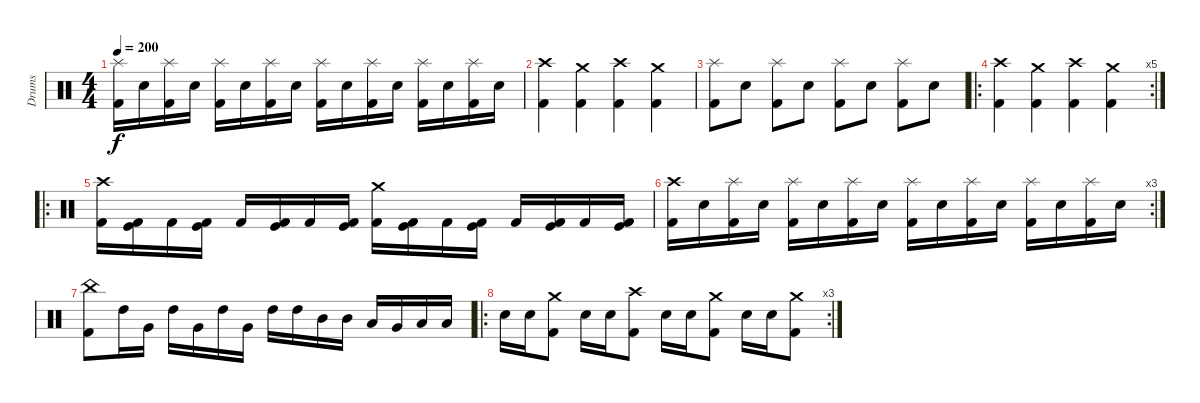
\track ("Drums" "Drums") {instrument percussion}
\staff {score}
\articulation defaults
\ts (4 4)
\tempo 200
\clef neutral
\ks c
("Splash (hit)" "Kick (hit) 2").16{dy f} "Electric Snare (hit)".16 ("Splash (hit)" "Kick (hit) 2").16 "Electric Snare (hit)".16 ("Splash (hit)" "Kick (hit) 2").16 "Electric Snare (hit)".16 ("Splash (hit)" "Kick (hit) 2").16 "Electric Snare (hit)".16 ("Splash (hit)" "Kick (hit) 2").16 "Electric Snare (hit)".16 ("Splash (hit)" "Kick (hit) 2").16 "Electric Snare (hit)".16 ("Splash (hit)" "Kick (hit) 2").16 "Electric Snare (hit)".16 ("Splash (hit)" "Kick (hit) 2").16 "Electric Snare (hit)".16 |
("Crash high (hit)" "Kick (hit) 2").4 ("Crash medium (hit)" "Kick (hit) 2").4 ("Crash high (hit)" "Kick (hit) 2").4 ("Crash medium (hit)" "Kick (hit) 2").4 |
("Splash (hit)" "Kick (hit) 2").8 "Electric Snare (hit)".8 ("Splash (hit)" "Kick (hit) 2").8 "Electric Snare (hit)".8 ("Splash (hit)" "Kick (hit) 2").8 "Electric Snare (hit)".8 ("Splash (hit)" "Kick (hit) 2").8 "Electric Snare (hit)".8 |
\ro
\rc 5
("Crash high (hit)" "Kick (hit) 2").4 ("Crash medium (hit)" "Kick (hit) 2").4 ("Crash high (hit)" "Kick (hit) 2").4 ("Crash medium (hit)" "Kick (hit) 2").4 |
\ro
("Crash high (hit)" "Kick (hit) 2").16 ("Kick (hit)" "Kick (hit) 2").16 "Kick (hit) 2".16 ("Kick (hit)" "Kick (hit) 2").16 "Kick (hit) 2".16 ("Kick (hit)" "Kick (hit) 2").16 "Kick (hit) 2".16 ("Kick (hit)" "Kick (hit) 2").16 ("Crash medium (hit)" "Kick (hit) 2").16 ("Kick (hit)" "Kick (hit) 2").16 "Kick (hit) 2".16 ("Kick (hit)" "Kick (hit) 2").16 "Kick (hit) 2".16 ("Kick (hit)" "Kick (hit) 2").16 "Kick (hit) 2".16 ("Kick (hit)" "Kick (hit) 2").16 |
\rc 3
("Crash high (hit)" "Kick (hit) 2").16 "Electric Snare (hit)".16 ("Splash (hit)" "Kick (hit) 2").16 "Electric Snare (hit)".16 ("Splash (hit)" "Kick (hit) 2").16 "Electric Snare (hit)".16 ("Splash (hit)" "Kick (hit) 2").16 "Electric Snare (hit)".16 ("Splash (hit)" "Kick (hit) 2").16 "Electric Snare (hit)".16 ("Splash (hit)" "Kick (hit) 2").16 "Electric Snare (hit)".16 ("Splash (hit)" "Kick (hit) 2").16 "Electric Snare (hit)".16 ("Splash (hit)" "Kick (hit) 2").16 "Electric Snare (hit)".16 |
("China (hit)" "Kick (hit) 2").8 "High Tom (hit)".16 "Very Low Tom (hit)".16 "High Tom (hit)".16 "Very Low Tom (hit)".16 "High Tom (hit)".16 "Very Low Tom (hit)".16 "High Tom (hit)".16 "High Tom (hit)".16 "Mid Tom (hit)".16 "Mid Tom (hit)".16 "Low Tom (hit)".16 "Very Low Tom (hit)".16 "Low Floor Tom (hit)".16 "Low Floor Tom (hit)".16 |
\ro
\rc 3 "Electric Snare (hit)".16 "Electric Snare (hit)".16
("Crash medium (hit)" "Kick (hit) 2").8 "Electric Snare (hit)".16 "Electric Snare (hit)".16 ("Crash high (hit)" "Kick (hit) 2").8 "Electric Snare (hit)".16 "Electric Snare (hit)".16 ("Crash medium (hit)" "Kick (hit) 2").8 "Electric Snare (hit)".16 "Electric Snare (hit)".16 ("Crash medium (hit)" "Kick (hit) 2").8
